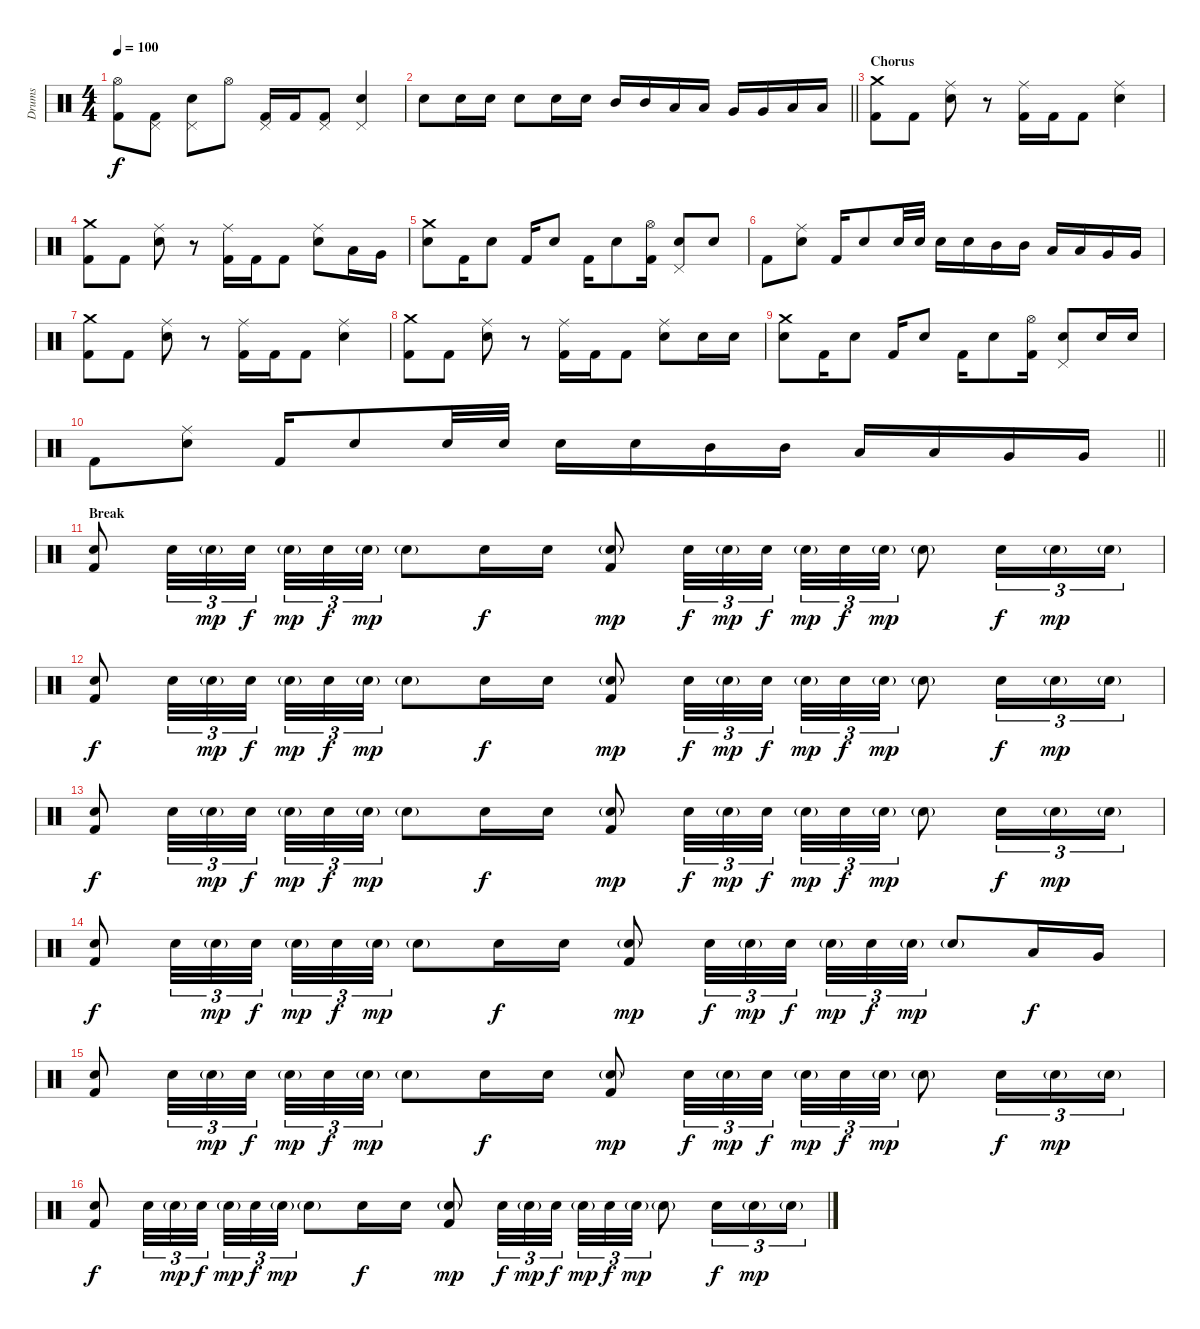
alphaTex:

\track ("Drums" "Drums") {instrument percussion}
\staff {score}
\articulation defaults
\ts (4 4)
\tempo 100
\clef neutral
\ks c
("Hi-Hat (open)" "Kick (hit) 2").8{dy f} ("Pedal Hi-Hat (hit)" "Kick (hit) 2").8 ("Pedal Hi-Hat (hit)" "Snare (hit) 2").8 "Hi-Hat (open)".8 ("Pedal Hi-Hat (hit)" "Kick (hit) 2").16 "Kick (hit) 2".16 ("Pedal Hi-Hat (hit)" "Kick (hit) 2").8 ("Pedal Hi-Hat (hit)" "Snare (hit) 2").4 |
\barLineRight lightlight "Snare (hit) 2".8 "Snare (hit) 2".16 "Snare (hit) 2".16 "Snare (hit) 2".8 "Snare (hit) 2".16 "Snare (hit) 2".16 "Mid Tom (hit)".16 "Mid Tom (hit)".16 "Low Tom (hit)".16 "Low Tom (hit)".16 "Very Low Tom (hit)".16 "Very Low Tom (hit)".16 "Low Floor Tom (hit)".16 "Low Floor Tom (hit)".16
|
\section ("" "Chorus")
("Crash medium (hit)" "Kick (hit) 2").8 "Kick (hit) 2".8 ("Ride (middle)" "Snare (hit) 2").8 r.8 ("Ride (middle)" "Kick (hit) 2").16 "Kick (hit) 2".16 "Kick (hit) 2".8 ("Ride (middle)" "Snare (hit) 2").4 |
("Crash medium (hit)" "Kick (hit) 2").8 "Kick (hit) 2".8 ("Ride (middle)" "Snare (hit) 2").8 r.8 ("Ride (middle)" "Kick (hit) 2").16 "Kick (hit) 2".16 "Kick (hit) 2".8 ("Ride (middle)" "Snare (hit) 2").8 "Low Tom (hit)".16 "Very Low Tom (hit)".16 |
("Crash medium (hit)" "Snare (hit) 2").8 "Kick (hit) 2".16 "Snare (hit) 2".8 "Kick (hit) 2".16 "Snare (hit) 2".8 "Kick (hit) 2".16 "Snare (hit) 2".8 ("Hi-Hat (open)" "Kick (hit) 2").16 ("Pedal Hi-Hat (hit)" "Snare (hit) 2").8 "Snare (hit) 2".8 |
"Kick (hit) 2".8 ("Ride (middle)" "Snare (hit) 2").8 "Kick (hit) 2".16 "Snare (hit) 2".8 "Snare (hit) 2".32 "Snare (hit) 2".32 "Snare (hit) 2".16 "Snare (hit) 2".16 "Mid Tom (hit)".16 "Mid Tom (hit)".16 "Low Tom (hit)".16 "Low Tom (hit)".16 "Very Low Tom (hit)".16 "Very Low Tom (hit)".16 |
("Crash medium (hit)" "Kick (hit) 2").8 "Kick (hit) 2".8 ("Ride (middle)" "Snare (hit) 2").8 r.8 ("Ride (middle)" "Kick (hit) 2").16 "Kick (hit) 2".16 "Kick (hit) 2".8 ("Ride (middle)" "Snare (hit) 2").4 |
("Crash medium (hit)" "Kick (hit) 2").8 "Kick (hit) 2".8 ("Ride (middle)" "Snare (hit) 2").8 r.8 ("Ride (middle)" "Kick (hit) 2").16 "Kick (hit) 2".16 "Kick (hit) 2".8 ("Ride (middle)" "Snare (hit) 2").8 "Snare (hit) 2".16 "Snare (hit) 2".16 |
("Crash medium (hit)" "Snare (hit) 2").8 "Kick (hit) 2".16 "Snare (hit) 2".8 "Kick (hit) 2".16 "Snare (hit) 2".8 "Kick (hit) 2".16 "Snare (hit) 2".8 ("Hi-Hat (open)" "Kick (hit) 2").16 ("Pedal Hi-Hat (hit)" "Snare (hit) 2").8 "Snare (hit) 2".16 "Snare (hit) 2".16 |
\barLineRight lightlight "Kick (hit) 2".8
("Ride (middle)" "Snare (hit) 2").8 "Kick (hit) 2".16 "Snare (hit) 2".8 "Snare (hit) 2".32 "Snare (hit) 2".32 "Snare (hit) 2".16 "Snare (hit) 2".16 "Mid Tom (hit)".16 "Mid Tom (hit)".16 "Low Tom (hit)".16 "Low Tom (hit)".16 "Very Low Tom (hit)".16 "Very Low Tom (hit)".16 |
\section ("" "Break")
("Snare (hit) 2" "Kick (hit) 2").8{volume 6} "Snare (hit) 2".32{tu (3 2)} "Snare (hit) 2"{g}.32{tu (3 2) dy mp} "Snare (hit) 2".32{tu (3 2) dy f beam splitsecondary} "Snare (hit) 2"{g}.32{tu (3 2) dy mp} "Snare (hit) 2".32{tu (3 2) dy f} "Snare (hit) 2"{g}.32{tu (3 2) dy mp} "Snare (hit) 2"{g}.8 "Snare (hit) 2".16{dy f} "Snare (hit) 2".16 ("Snare (hit) 2"{g} "Kick (hit) 2").8{dy mp} "Snare (hit) 2".32{tu (3 2) dy f} "Snare (hit) 2"{g}.32{tu (3 2) dy mp} "Snare (hit) 2".32{tu (3 2) dy f beam splitsecondary} "Snare (hit) 2"{g}.32{tu (3 2) dy mp} "Snare (hit) 2".32{tu (3 2) dy f} "Snare (hit) 2"{g}.32{tu (3 2) dy mp} "Snare (hit) 2"{g}.8 "Snare (hit) 2".16{tu (3 2) dy f} "Snare (hit) 2"{g}.16{tu (3 2) dy mp} "Snare (hit) 2"{g}.16{tu (3 2)} |
("Snare (hit) 2" "Kick (hit) 2").8{dy f} "Snare (hit) 2".32{tu (3 2)} "Snare (hit) 2"{g}.32{tu (3 2) dy mp} "Snare (hit) 2".32{tu (3 2) dy f beam splitsecondary} "Snare (hit) 2"{g}.32{tu (3 2) dy mp} "Snare (hit) 2".32{tu (3 2) dy f} "Snare (hit) 2"{g}.32{tu (3 2) dy mp} "Snare (hit) 2"{g}.8 "Snare (hit) 2".16{dy f} "Snare (hit) 2".16 ("Snare (hit) 2"{g} "Kick (hit) 2").8{dy mp} "Snare (hit) 2".32{tu (3 2) dy f} "Snare (hit) 2"{g}.32{tu (3 2) dy mp} "Snare (hit) 2".32{tu (3 2) dy f beam splitsecondary} "Snare (hit) 2"{g}.32{tu (3 2) dy mp} "Snare (hit) 2".32{tu (3 2) dy f} "Snare (hit) 2"{g}.32{tu (3 2) dy mp} "Snare (hit) 2"{g}.8 "Snare (hit) 2".16{tu (3 2) dy f} "Snare (hit) 2"{g}.16{tu (3 2) dy mp} "Snare (hit) 2"{g}.16{tu (3 2)} |
("Snare (hit) 2" "Kick (hit) 2").8{dy f} "Snare (hit) 2".32{tu (3 2)} "Snare (hit) 2"{g}.32{tu (3 2) dy mp} "Snare (hit) 2".32{tu (3 2) dy f beam splitsecondary} "Snare (hit) 2"{g}.32{tu (3 2) dy mp} "Snare (hit) 2".32{tu (3 2) dy f} "Snare (hit) 2"{g}.32{tu (3 2) dy mp} "Snare (hit) 2"{g}.8 "Snare (hit) 2".16{dy f} "Snare (hit) 2".16 ("Snare (hit) 2"{g} "Kick (hit) 2").8{dy mp} "Snare (hit) 2".32{tu (3 2) dy f} "Snare (hit) 2"{g}.32{tu (3 2) dy mp} "Snare (hit) 2".32{tu (3 2) dy f beam splitsecondary} "Snare (hit) 2"{g}.32{tu (3 2) dy mp} "Snare (hit) 2".32{tu (3 2) dy f} "Snare (hit) 2"{g}.32{tu (3 2) dy mp} "Snare (hit) 2"{g}.8 "Snare (hit) 2".16{tu (3 2) dy f} "Snare (hit) 2"{g}.16{tu (3 2) dy mp} "Snare (hit) 2"{g}.16{tu (3 2)} |
("Snare (hit) 2" "Kick (hit) 2").8{dy f} "Snare (hit) 2".32{tu (3 2)} "Snare (hit) 2"{g}.32{tu (3 2) dy mp} "Snare (hit) 2".32{tu (3 2) dy f beam splitsecondary} "Snare (hit) 2"{g}.32{tu (3 2) dy mp} "Snare (hit) 2".32{tu (3 2) dy f} "Snare (hit) 2"{g}.32{tu (3 2) dy mp} "Snare (hit) 2"{g}.8 "Snare (hit) 2".16{dy f} "Snare (hit) 2".16 ("Snare (hit) 2"{g} "Kick (hit) 2").8{dy mp} "Snare (hit) 2".32{tu (3 2) dy f} "Snare (hit) 2"{g}.32{tu (3 2) dy mp} "Snare (hit) 2".32{tu (3 2) dy f beam splitsecondary} "Snare (hit) 2"{g}.32{tu (3 2) dy mp} "Snare (hit) 2".32{tu (3 2) dy f} "Snare (hit) 2"{g}.32{tu (3 2) dy mp} "Snare (hit) 2"{g}.8 "Low Tom (hit)".16{dy f} "Very Low Tom (hit)".16 |
("Snare (hit) 2" "Kick (hit) 2").8 "Snare (hit) 2".32{tu (3 2)} "Snare (hit) 2"{g}.32{tu (3 2) dy mp} "Snare (hit) 2".32{tu (3 2) dy f beam splitsecondary} "Snare (hit) 2"{g}.32{tu (3 2) dy mp} "Snare (hit) 2".32{tu (3 2) dy f} "Snare (hit) 2"{g}.32{tu (3 2) dy mp} "Snare (hit) 2"{g}.8 "Snare (hit) 2".16{dy f} "Snare (hit) 2".16 ("Snare (hit) 2"{g} "Kick (hit) 2").8{dy mp} "Snare (hit) 2".32{tu (3 2) dy f} "Snare (hit) 2"{g}.32{tu (3 2) dy mp} "Snare (hit) 2".32{tu (3 2) dy f beam splitsecondary} "Snare (hit) 2"{g}.32{tu (3 2) dy mp} "Snare (hit) 2".32{tu (3 2) dy f} "Snare (hit) 2"{g}.32{tu (3 2) dy mp} "Snare (hit) 2"{g}.8 "Snare (hit) 2".16{tu (3 2) dy f} "Snare (hit) 2"{g}.16{tu (3 2) dy mp} "Snare (hit) 2"{g}.16{tu (3 2)} |
("Snare (hit) 2" "Kick (hit) 2").8{dy f} "Snare (hit) 2".32{tu (3 2)} "Snare (hit) 2"{g}.32{tu (3 2) dy mp} "Snare (hit) 2".32{tu (3 2) dy f beam splitsecondary} "Snare (hit) 2"{g}.32{tu (3 2) dy mp} "Snare (hit) 2".32{tu (3 2) dy f} "Snare (hit) 2"{g}.32{tu (3 2) dy mp} "Snare (hit) 2"{g}.8 "Snare (hit) 2".16{dy f} "Snare (hit) 2".16 ("Snare (hit) 2"{g} "Kick (hit) 2").8{dy mp} "Snare (hit) 2".32{tu (3 2) dy f} "Snare (hit) 2"{g}.32{tu (3 2) dy mp} "Snare (hit) 2".32{tu (3 2) dy f beam splitsecondary} "Snare (hit) 2"{g}.32{tu (3 2) dy mp} "Snare (hit) 2".32{tu (3 2) dy f} "Snare (hit) 2"{g}.32{tu (3 2) dy mp} "Snare (hit) 2"{g}.8 "Snare (hit) 2".16{tu (3 2) dy f} "Snare (hit) 2"{g}.16{tu (3 2) dy mp} "Snare (hit) 2"{g}.16{tu (3 2)}
